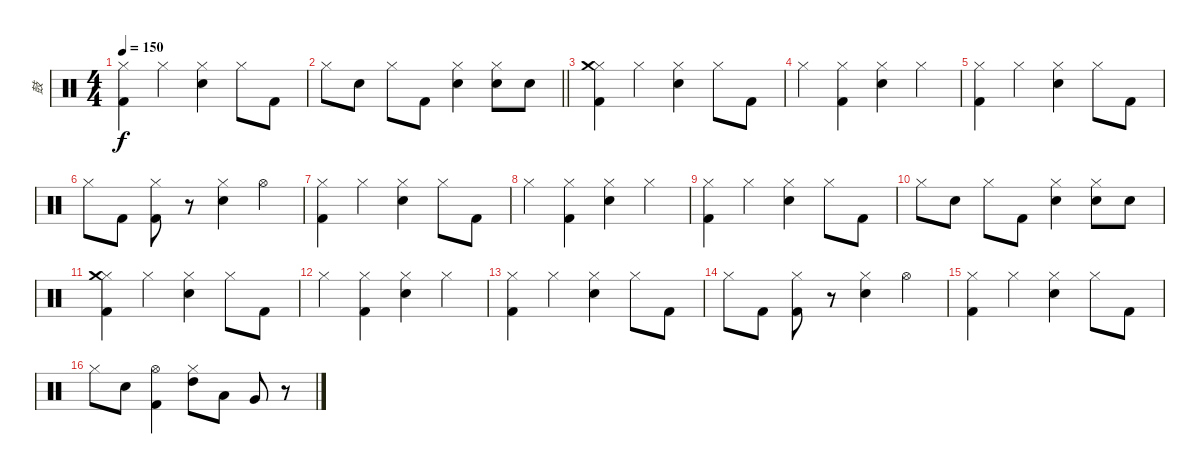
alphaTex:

\track ("鼓" "鼓") {instrument percussion}
\staff {score}
\articulation defaults
\ts (4 4)
\tempo 150
\clef neutral
\ks c
("Hi-Hat (closed)" "Kick (hit) 2").4{dy f} "Hi-Hat (closed)".4 ("Hi-Hat (closed)" "Electric Snare (hit)").4 "Hi-Hat (closed)".8 "Kick (hit) 2".8 |
\barLineRight lightlight "Hi-Hat (closed)".8 "Electric Snare (hit)".8 "Hi-Hat (closed)".8 "Kick (hit) 2".8
("Hi-Hat (closed)" "Electric Snare (hit)").4 ("Hi-Hat (closed)" "Electric Snare (hit)").8 "Electric Snare (hit)".8 |
("Hi-Hat (closed)" "Crash medium (hit)" "Kick (hit) 2").4 "Hi-Hat (closed)".4 ("Hi-Hat (closed)" "Electric Snare (hit)").4 "Hi-Hat (closed)".8 "Kick (hit) 2".8 |
"Hi-Hat (closed)".4 ("Hi-Hat (closed)" "Kick (hit) 2").4 ("Hi-Hat (closed)" "Electric Snare (hit)").4 "Hi-Hat (closed)".4 |
("Hi-Hat (closed)" "Kick (hit) 2").4 "Hi-Hat (closed)".4 ("Hi-Hat (closed)" "Electric Snare (hit)").4 "Hi-Hat (closed)".8 "Kick (hit) 2".8 |
"Hi-Hat (closed)".8 "Kick (hit) 2".8 ("Hi-Hat (closed)" "Kick (hit) 2").8 r.8 ("Hi-Hat (closed)" "Electric Snare (hit)").4 "Hi-Hat (open)".4 |
("Hi-Hat (closed)" "Kick (hit) 2").4 "Hi-Hat (closed)".4 ("Hi-Hat (closed)" "Electric Snare (hit)").4 "Hi-Hat (closed)".8 "Kick (hit) 2".8 |
"Hi-Hat (closed)".4 ("Hi-Hat (closed)" "Kick (hit) 2").4 ("Hi-Hat (closed)" "Electric Snare (hit)").4 "Hi-Hat (closed)".4 |
("Hi-Hat (closed)" "Kick (hit) 2").4 "Hi-Hat (closed)".4 ("Hi-Hat (closed)" "Electric Snare (hit)").4 "Hi-Hat (closed)".8 "Kick (hit) 2".8 |
"Hi-Hat (closed)".8 "Electric Snare (hit)".8 "Hi-Hat (closed)".8 "Kick (hit) 2".8 ("Hi-Hat (closed)" "Electric Snare (hit)").4 ("Hi-Hat (closed)" "Electric Snare (hit)").8 "Electric Snare (hit)".8 |
("Hi-Hat (closed)" "Crash medium (hit)" "Kick (hit) 2").4 "Hi-Hat (closed)".4 ("Hi-Hat (closed)" "Electric Snare (hit)").4 "Hi-Hat (closed)".8 "Kick (hit) 2".8 |
"Hi-Hat (closed)".4 ("Hi-Hat (closed)" "Kick (hit) 2").4 ("Hi-Hat (closed)" "Electric Snare (hit)").4 "Hi-Hat (closed)".4 |
("Hi-Hat (closed)" "Kick (hit) 2").4 "Hi-Hat (closed)".4 ("Hi-Hat (closed)" "Electric Snare (hit)").4 "Hi-Hat (closed)".8 "Kick (hit) 2".8 |
"Hi-Hat (closed)".8 "Kick (hit) 2".8 ("Hi-Hat (closed)" "Kick (hit) 2").8 r.8 ("Hi-Hat (closed)" "Electric Snare (hit)").4 "Hi-Hat (open)".4 |
("Hi-Hat (closed)" "Kick (hit) 2").4 "Hi-Hat (closed)".4 ("Hi-Hat (closed)" "Electric Snare (hit)").4 "Hi-Hat (closed)".8 "Kick (hit) 2".8 |
"Hi-Hat (closed)".8 "Electric Snare (hit)".8 ("Hi-Hat (open)" "Kick (hit) 2").4 ("Hi-Hat (closed)" "High Tom (hit)").8 "Low Tom (hit)".8 "Very Low Tom (hit)".8 r.8
